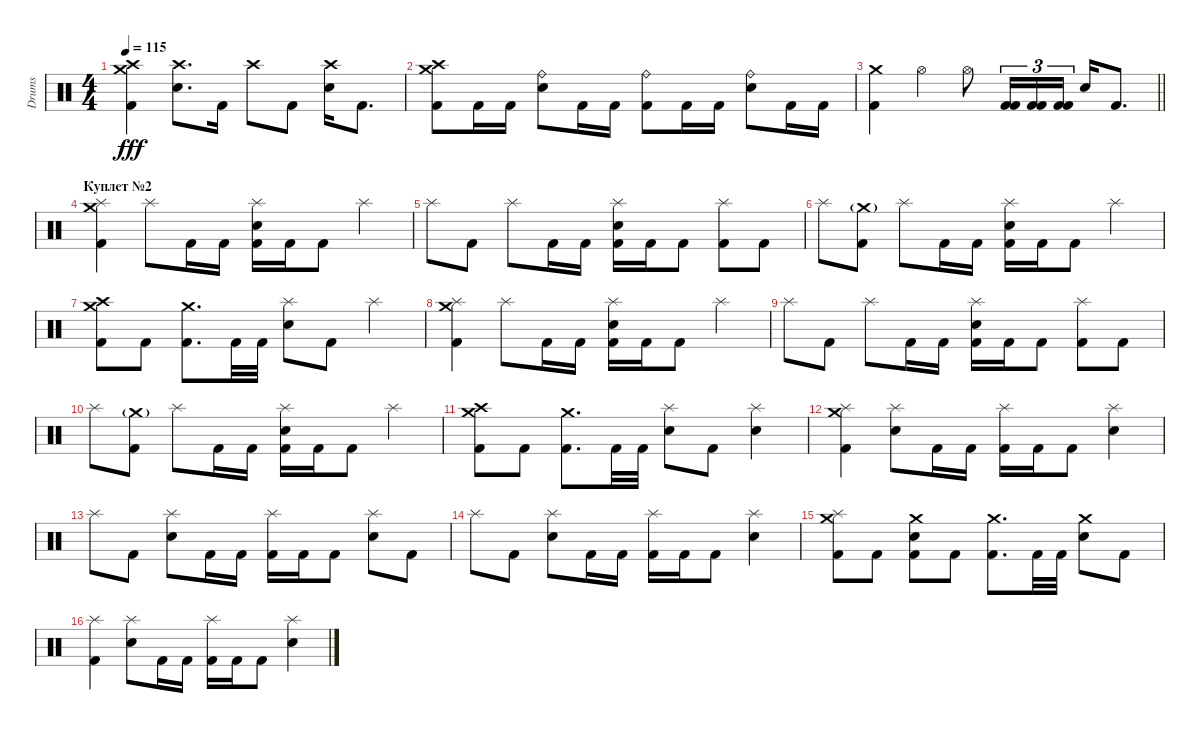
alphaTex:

\track ("Drums " "Drums ") {instrument percussion}
\staff {score}
\articulation defaults
\ts (4 4)
\tempo 115
\clef neutral
\ks c
("Crash medium (hit)" "Crash high (hit)" "Kick (hit) 2").4{dy fff} ("Crash high (hit)" "Electric Snare (hit)").8{d} "Kick (hit) 2".16 "Crash high (hit)".8 "Kick (hit) 2".8 ("Crash high (hit)" "Electric Snare (hit)").16 "Kick (hit) 2".8{d} |
("Crash medium (hit)" "Crash high (hit)" "Kick (hit) 2").8 "Kick (hit) 2".16 "Kick (hit) 2".16 ("Ride (bell)" "Electric Snare (hit)").8 "Kick (hit) 2".16 "Kick (hit) 2".16 ("Ride (bell)" "Kick (hit) 2").8 "Kick (hit) 2".16 "Kick (hit) 2".16 ("Ride (bell)" "Electric Snare (hit)").8 "Kick (hit) 2".16 "Kick (hit) 2".16 |
\barLineRight lightlight
("Crash medium (hit)" "Kick (hit) 2").4 "Hi-Hat (open)".4 "Hi-Hat (open)".8 ("Kick (hit) 2" "Kick (hit) 2").16{tu (3 2)} ("Kick (hit) 2" "Kick (hit) 2").16{tu (3 2)} ("Kick (hit) 2" "Kick (hit) 2").16{tu (3 2)} "Electric Snare (hit)".16 "Kick (hit) 2".8{d} |
\section ("" "Куплет №2")
("Splash (hit)" "Crash medium (hit)" "Kick (hit) 2").4 "Splash (hit)".8 "Kick (hit) 2".16 "Kick (hit) 2".16 ("Splash (hit)" "Electric Snare (hit)" "Kick (hit) 2").16 "Kick (hit) 2".16 "Kick (hit) 2".8 "Splash (hit)".4 |
"Splash (hit)".8 "Kick (hit) 2".8 "Splash (hit)".8 "Kick (hit) 2".16 "Kick (hit) 2".16 ("Splash (hit)" "Electric Snare (hit)" "Kick (hit) 2").16 "Kick (hit) 2".16 "Kick (hit) 2".8 ("Splash (hit)" "Kick (hit) 2").8 "Kick (hit) 2".8 |
"Splash (hit)".8 ("Crash medium (hit)"{g} "Kick (hit) 2").8 "Splash (hit)".8 "Kick (hit) 2".16 "Kick (hit) 2".16 ("Splash (hit)" "Electric Snare (hit)" "Kick (hit) 2").16 "Kick (hit) 2".16 "Kick (hit) 2".8 "Splash (hit)".4 |
("Crash medium (hit)" "Crash high (hit)" "Kick (hit) 2").8 "Kick (hit) 2".8 ("Crash medium (hit)" "Kick (hit) 2").8{d} "Kick (hit) 2".32 "Kick (hit) 2".32 ("Splash (hit)" "Electric Snare (hit)").8 "Kick (hit) 2".8 "Splash (hit)".4 |
("Splash (hit)" "Crash medium (hit)" "Kick (hit) 2").4 "Splash (hit)".8 "Kick (hit) 2".16 "Kick (hit) 2".16 ("Splash (hit)" "Electric Snare (hit)" "Kick (hit) 2").16 "Kick (hit) 2".16 "Kick (hit) 2".8 "Splash (hit)".4 |
"Splash (hit)".8 "Kick (hit) 2".8 "Splash (hit)".8 "Kick (hit) 2".16 "Kick (hit) 2".16 ("Splash (hit)" "Electric Snare (hit)" "Kick (hit) 2").16 "Kick (hit) 2".16 "Kick (hit) 2".8 ("Splash (hit)" "Kick (hit) 2").8 "Kick (hit) 2".8 |
"Splash (hit)".8 ("Crash medium (hit)"{g} "Kick (hit) 2").8 "Splash (hit)".8 "Kick (hit) 2".16 "Kick (hit) 2".16 ("Splash (hit)" "Electric Snare (hit)" "Kick (hit) 2").16 "Kick (hit) 2".16 "Kick (hit) 2".8 "Splash (hit)".4 |
("Crash medium (hit)" "Crash high (hit)" "Kick (hit) 2").8 "Kick (hit) 2".8 ("Crash medium (hit)" "Kick (hit) 2").8{d} "Kick (hit) 2".32 "Kick (hit) 2".32 ("Splash (hit)" "Electric Snare (hit)").8 "Kick (hit) 2".8 ("Splash (hit)" "Electric Snare (hit)").4 |
("Crash medium (hit)" "Splash (hit)" "Kick (hit) 2").4 ("Splash (hit)" "Electric Snare (hit)").8 "Kick (hit) 2".16 "Kick (hit) 2".16 ("Splash (hit)" "Kick (hit) 2").16 "Kick (hit) 2".16 "Kick (hit) 2".8 ("Splash (hit)" "Electric Snare (hit)").4 |
"Splash (hit)".8 "Kick (hit) 2".8 ("Splash (hit)" "Electric Snare (hit)").8 "Kick (hit) 2".16 "Kick (hit) 2".16 ("Splash (hit)" "Kick (hit) 2").16 "Kick (hit) 2".16 "Kick (hit) 2".8 ("Splash (hit)" "Electric Snare (hit)").8 "Kick (hit) 2".8 |
"Splash (hit)".8 "Kick (hit) 2".8 ("Splash (hit)" "Electric Snare (hit)").8 "Kick (hit) 2".16 "Kick (hit) 2".16 ("Splash (hit)" "Kick (hit) 2").16 "Kick (hit) 2".16 "Kick (hit) 2".8 ("Splash (hit)" "Electric Snare (hit)").4 |
("Crash medium (hit)" "Splash (hit)" "Kick (hit) 2").8 "Kick (hit) 2".8 ("Crash medium (hit)" "Electric Snare (hit)" "Kick (hit) 2").8 "Kick (hit) 2".8 ("Crash medium (hit)" "Kick (hit) 2").8{d} "Kick (hit) 2".32 "Kick (hit) 2".32 ("Crash medium (hit)" "Electric Snare (hit)").8 "Kick (hit) 2".8 |
("Splash (hit)" "Kick (hit) 2").4 ("Splash (hit)" "Electric Snare (hit)").8 "Kick (hit) 2".16 "Kick (hit) 2".16 ("Splash (hit)" "Kick (hit) 2").16 "Kick (hit) 2".16 "Kick (hit) 2".8 ("Splash (hit)" "Electric Snare (hit)").4
